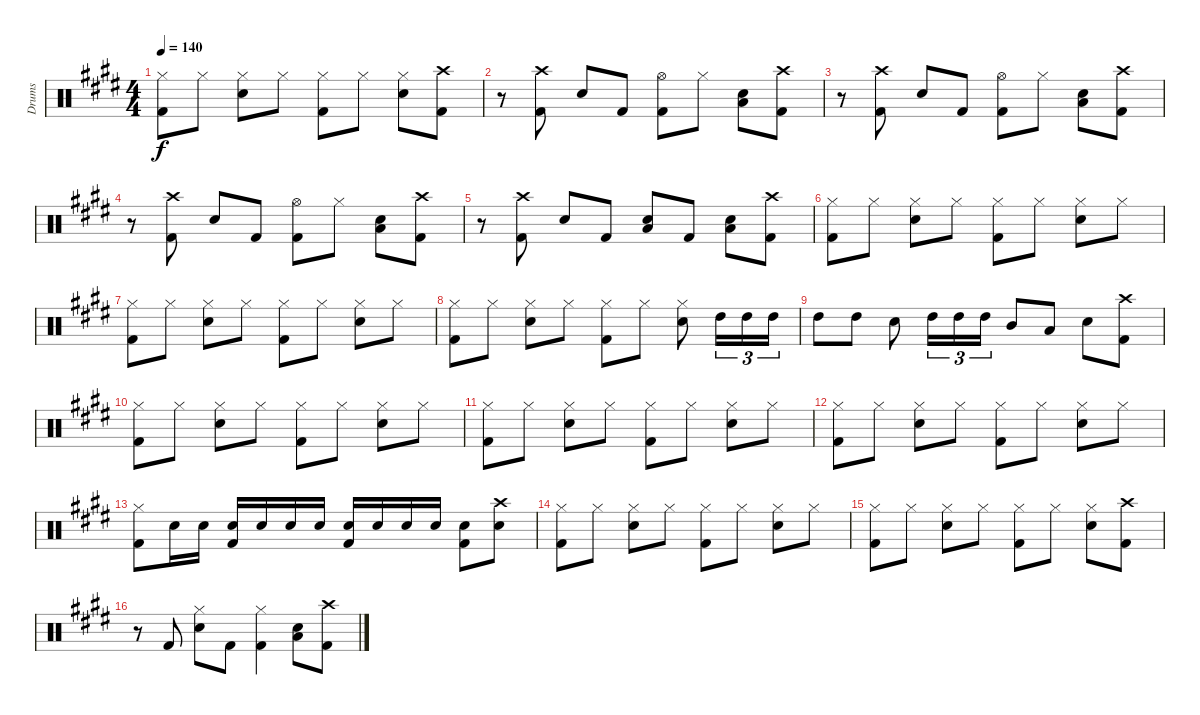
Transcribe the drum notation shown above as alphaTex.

\track ("Drums" "Drums") {instrument percussion}
\staff {score}
\articulation defaults
\ts (4 4)
\tempo 140
\clef neutral
\ks e
("Hi-Hat (closed)" "Kick (hit) 2").8{dy f} "Hi-Hat (closed)".8 ("Hi-Hat (closed)" "Electric Snare (hit)").8 "Hi-Hat (closed)".8 ("Hi-Hat (closed)" "Kick (hit) 2").8 "Hi-Hat (closed)".8 ("Hi-Hat (closed)" "Electric Snare (hit)").8 ("Crash high (hit)" "Kick (hit) 2").8 |
r.8 ("Crash high (hit)" "Kick (hit) 2").8 "Electric Snare (hit)".8 "Kick (hit) 2".8 ("Hi-Hat (open)" "Kick (hit) 2").8 "Hi-Hat (closed)".8 ("Electric Snare (hit)" "Low Tom (hit)").8 ("Crash high (hit)" "Kick (hit) 2").8 |
r.8 ("Crash high (hit)" "Kick (hit) 2").8 "Electric Snare (hit)".8 "Kick (hit) 2".8 ("Hi-Hat (open)" "Kick (hit) 2").8 "Hi-Hat (closed)".8 ("Electric Snare (hit)" "Low Tom (hit)").8 ("Crash high (hit)" "Kick (hit) 2").8 |
r.8 ("Crash high (hit)" "Kick (hit) 2").8 "Electric Snare (hit)".8 "Kick (hit) 2".8 ("Hi-Hat (open)" "Kick (hit) 2").8 "Hi-Hat (closed)".8 ("Electric Snare (hit)" "Low Tom (hit)").8 ("Crash high (hit)" "Kick (hit) 2").8 |
r.8 ("Crash high (hit)" "Kick (hit) 2").8 "Electric Snare (hit)".8 "Kick (hit) 2".8 ("Electric Snare (hit)" "Low Tom (hit)").8 "Kick (hit) 2".8 ("Electric Snare (hit)" "Low Tom (hit)").8 ("Crash high (hit)" "Kick (hit) 2").8 |
("Hi-Hat (closed)" "Kick (hit) 2").8 "Hi-Hat (closed)".8 ("Hi-Hat (closed)" "Electric Snare (hit)").8 "Hi-Hat (closed)".8 ("Hi-Hat (closed)" "Kick (hit) 2").8 "Hi-Hat (closed)".8 ("Hi-Hat (closed)" "Electric Snare (hit)").8 "Hi-Hat (closed)".8 |
("Hi-Hat (closed)" "Kick (hit) 2").8 "Hi-Hat (closed)".8 ("Hi-Hat (closed)" "Electric Snare (hit)").8 "Hi-Hat (closed)".8 ("Hi-Hat (closed)" "Kick (hit) 2").8 "Hi-Hat (closed)".8 ("Hi-Hat (closed)" "Electric Snare (hit)").8 "Hi-Hat (closed)".8 |
("Hi-Hat (closed)" "Kick (hit) 2").8 "Hi-Hat (closed)".8 ("Hi-Hat (closed)" "Electric Snare (hit)").8 "Hi-Hat (closed)".8 ("Hi-Hat (closed)" "Kick (hit) 2").8 "Hi-Hat (closed)".8 ("Hi-Hat (closed)" "Electric Snare (hit)").8 "High Tom (hit)".16{tu (3 2)} "High Tom (hit)".16{tu (3 2)} "High Tom (hit)".16{tu (3 2)} |
"High Tom (hit)".8 "High Tom (hit)".8 "Electric Snare (hit)".8 "High Tom (hit)".16{tu (3 2)} "High Tom (hit)".16{tu (3 2)} "High Tom (hit)".16{tu (3 2)} "Mid Tom (hit)".8 "Low Tom (hit)".8 "Electric Snare (hit)".8 ("Crash high (hit)" "Kick (hit) 2").8 |
("Hi-Hat (closed)" "Kick (hit) 2").8 "Hi-Hat (closed)".8 ("Hi-Hat (closed)" "Electric Snare (hit)").8 "Hi-Hat (closed)".8 ("Hi-Hat (closed)" "Kick (hit) 2").8 "Hi-Hat (closed)".8 ("Hi-Hat (closed)" "Electric Snare (hit)").8 "Hi-Hat (closed)".8 |
("Hi-Hat (closed)" "Kick (hit) 2").8 "Hi-Hat (closed)".8 ("Hi-Hat (closed)" "Electric Snare (hit)").8 "Hi-Hat (closed)".8 ("Hi-Hat (closed)" "Kick (hit) 2").8 "Hi-Hat (closed)".8 ("Hi-Hat (closed)" "Electric Snare (hit)").8 "Hi-Hat (closed)".8 |
("Hi-Hat (closed)" "Kick (hit) 2").8 "Hi-Hat (closed)".8 ("Hi-Hat (closed)" "Electric Snare (hit)").8 "Hi-Hat (closed)".8 ("Hi-Hat (closed)" "Kick (hit) 2").8 "Hi-Hat (closed)".8 ("Hi-Hat (closed)" "Electric Snare (hit)").8 "Hi-Hat (closed)".8 |
("Hi-Hat (closed)" "Kick (hit) 2").8 "Electric Snare (hit)".16 "Electric Snare (hit)".16 ("Electric Snare (hit)" "Kick (hit) 2").16 "Electric Snare (hit)".16 "Electric Snare (hit)".16 "Electric Snare (hit)".16 ("Electric Snare (hit)" "Kick (hit) 2").16 "Electric Snare (hit)".16 "Electric Snare (hit)".16 "Electric Snare (hit)".16 ("Electric Snare (hit)" "Kick (hit) 2").8 ("Crash high (hit)" "Electric Snare (hit)").8 |
("Hi-Hat (closed)" "Kick (hit) 2").8 "Hi-Hat (closed)".8 ("Hi-Hat (closed)" "Electric Snare (hit)").8 "Hi-Hat (closed)".8 ("Hi-Hat (closed)" "Kick (hit) 2").8 "Hi-Hat (closed)".8 ("Hi-Hat (closed)" "Electric Snare (hit)").8 "Hi-Hat (closed)".8 |
("Hi-Hat (closed)" "Kick (hit) 2").8 "Hi-Hat (closed)".8 ("Hi-Hat (closed)" "Electric Snare (hit)").8 "Hi-Hat (closed)".8 ("Hi-Hat (closed)" "Kick (hit) 2").8 "Hi-Hat (closed)".8 ("Hi-Hat (closed)" "Electric Snare (hit)").8 ("Crash high (hit)" "Kick (hit) 2").8 |
r.8 "Kick (hit) 2".8 ("Hi-Hat (closed)" "Electric Snare (hit)").8 "Kick (hit) 2".8 ("Hi-Hat (closed)" "Kick (hit) 2").4 ("Electric Snare (hit)" "Low Tom (hit)").8 ("Crash high (hit)" "Kick (hit) 2").8
